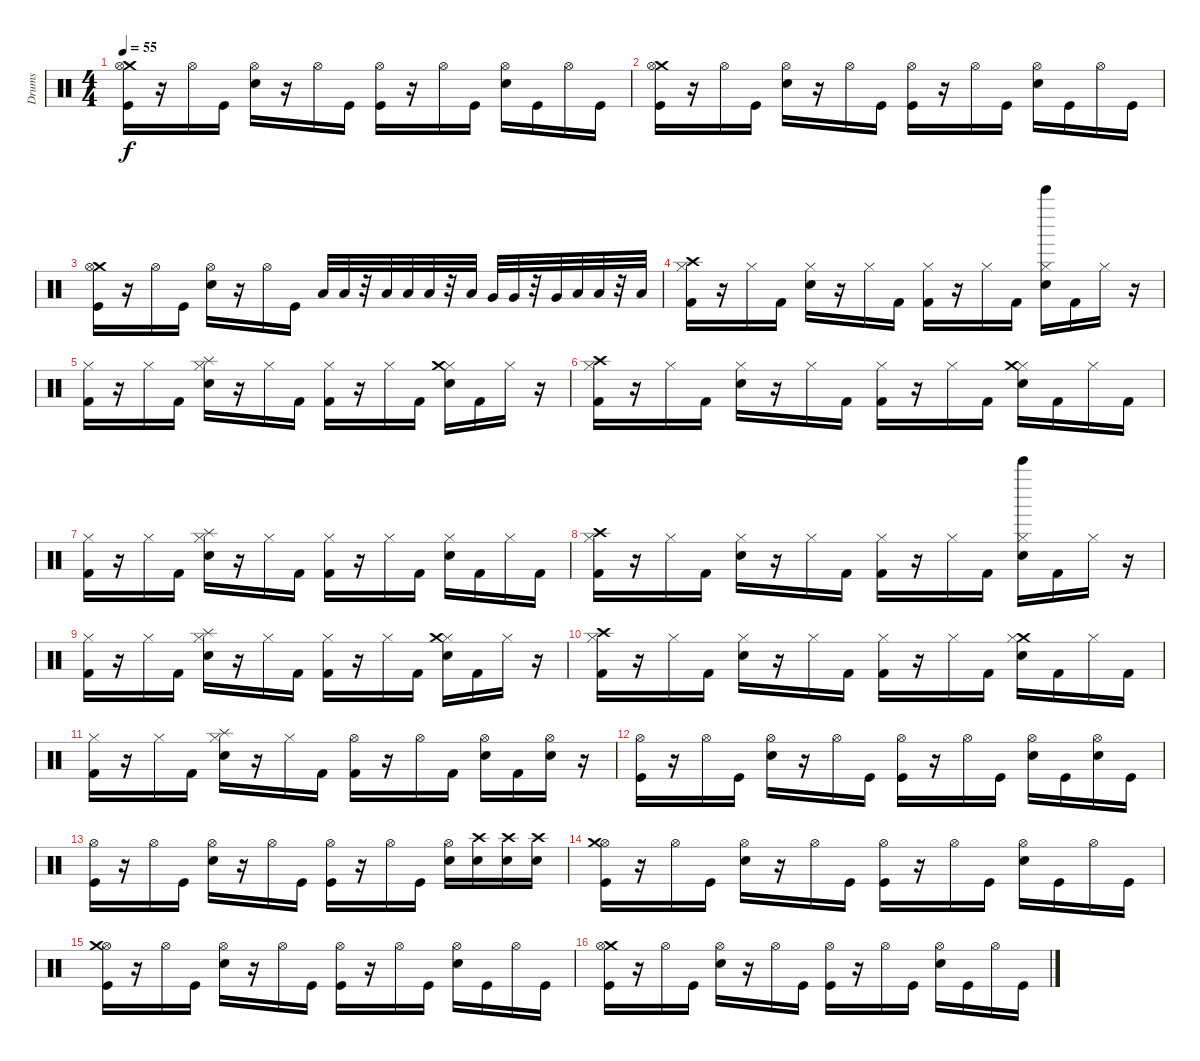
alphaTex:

\track ("Drums" "Drums") {instrument percussion}
\staff {score}
\articulation defaults
\ts (4 4)
\tempo 55
\clef neutral
\ks c
("Crash medium (hit)" "Hi-Hat (open)" "Kick (hit)").16{dy f} r.16 "Hi-Hat (open)".16 "Kick (hit)".16 ("Electric Snare (hit)" "Hi-Hat (open)").16 r.16 "Hi-Hat (open)".16 "Kick (hit)".16 ("Kick (hit)" "Hi-Hat (open)").16 r.16 "Hi-Hat (open)".16 "Kick (hit)".16 ("Hi-Hat (open)" "Electric Snare (hit)").16 "Kick (hit)".16 "Hi-Hat (open)".16 "Kick (hit)".16 |
("Crash medium (hit)" "Hi-Hat (open)" "Kick (hit)").16 r.16 "Hi-Hat (open)".16 "Kick (hit)".16 ("Hi-Hat (open)" "Electric Snare (hit)").16 r.16 "Hi-Hat (open)".16 "Kick (hit)".16 ("Hi-Hat (open)" "Kick (hit)").16 r.16 "Hi-Hat (open)".16 "Kick (hit)".16 ("Electric Snare (hit)" "Hi-Hat (open)").16 "Kick (hit)".16 "Hi-Hat (open)".16 "Kick (hit)".16 |
("Crash medium (hit)" "Kick (hit)" "Hi-Hat (open)").16 r.16 "Hi-Hat (open)".16 "Kick (hit)".16 ("Hi-Hat (open)" "Electric Snare (hit)").16 r.16 "Hi-Hat (open)".16 "Kick (hit)".16 "Low Tom (hit)".32 "Low Tom (hit)".32 r.32 "Low Tom (hit)".32 "Low Tom (hit)".32 "Low Tom (hit)".32 r.32 "Low Tom (hit)".32 "Very Low Tom (hit)".32 "Very Low Tom (hit)".32 r.32 "Very Low Tom (hit)".32 "Low Floor Tom (hit)".32 "Low Floor Tom (hit)".32 r.32 "Low Floor Tom (hit)".32 |
("Crash high (hit)" "Hi-Hat (closed)" "Kick (hit) 2").16 r.16 "Hi-Hat (closed)".16 "Kick (hit) 2".16 ("Hi-Hat (closed)" "Electric Snare (hit)").16 r.16 "Hi-Hat (closed)".16 "Kick (hit) 2".16 ("Hi-Hat (closed)" "Kick (hit) 2").16 r.16 "Hi-Hat (closed)".16 "Kick (hit) 2".16 ("Hi-Hat (closed)" "Electric Snare (hit)" "Bell Tree (hit)").16 "Kick (hit) 2".16 "Hi-Hat (closed)".16 r.16 |
("Hi-Hat (closed)" "Kick (hit) 2").16 r.16 "Hi-Hat (closed)".16 "Kick (hit) 2".16 ("Splash (hit)" "Hi-Hat (closed)" "Electric Snare (hit)").16 r.16 "Hi-Hat (closed)".16 "Kick (hit) 2".16 ("Hi-Hat (closed)" "Kick (hit) 2").16 r.16 "Hi-Hat (closed)".16 "Kick (hit) 2".16 ("Hi-Hat (closed)" "Electric Snare (hit)" "Crash medium (hit)").16 "Kick (hit) 2".16 "Hi-Hat (closed)".16 r.16 |
("Kick (hit) 2" "Crash high (hit)" "Hi-Hat (closed)").16 r.16 "Hi-Hat (closed)".16 "Kick (hit) 2".16 ("Hi-Hat (closed)" "Electric Snare (hit)").16 r.16 "Hi-Hat (closed)".16 "Kick (hit) 2".16 ("Kick (hit) 2" "Hi-Hat (closed)").16 r.16 "Hi-Hat (closed)".16 "Kick (hit) 2".16 ("Hi-Hat (closed)" "Crash medium (hit)" "Electric Snare (hit)").16 "Kick (hit) 2".16 "Hi-Hat (closed)".16 "Kick (hit) 2".16 |
("Hi-Hat (closed)" "Kick (hit) 2").16 r.16 "Hi-Hat (closed)".16 "Kick (hit) 2".16 ("Splash (hit)" "Electric Snare (hit)" "Hi-Hat (closed)").16 r.16 "Hi-Hat (closed)".16 "Kick (hit) 2".16 ("Kick (hit) 2" "Hi-Hat (closed)").16 r.16 "Hi-Hat (closed)".16 "Kick (hit) 2".16 ("Electric Snare (hit)" "Hi-Hat (closed)").16 "Kick (hit) 2".16 "Hi-Hat (closed)".16 "Kick (hit) 2".16 |
("Kick (hit) 2" "Hi-Hat (closed)" "Crash high (hit)").16 r.16 "Hi-Hat (closed)".16 "Kick (hit) 2".16 ("Hi-Hat (closed)" "Electric Snare (hit)").16 r.16 "Hi-Hat (closed)".16 "Kick (hit) 2".16 ("Hi-Hat (closed)" "Kick (hit) 2").16 r.16 "Hi-Hat (closed)".16 "Kick (hit) 2".16 ("Electric Snare (hit)" "Hi-Hat (closed)" "Bell Tree (hit)").16 "Kick (hit) 2".16 "Hi-Hat (closed)".16 r.16 |
("Hi-Hat (closed)" "Kick (hit) 2").16 r.16 "Hi-Hat (closed)".16 "Kick (hit) 2".16 ("Hi-Hat (closed)" "Splash (hit)" "Electric Snare (hit)").16 r.16 "Hi-Hat (closed)".16 "Kick (hit) 2".16 ("Hi-Hat (closed)" "Kick (hit) 2").16 r.16 "Hi-Hat (closed)".16 "Kick (hit) 2".16 ("Electric Snare (hit)" "Hi-Hat (closed)" "Crash medium (hit)").16 "Kick (hit) 2".16 "Hi-Hat (closed)".16 r.16 |
("Kick (hit) 2" "Hi-Hat (closed)" "Crash high (hit)").16 r.16 "Hi-Hat (closed)".16 "Kick (hit) 2".16 ("Hi-Hat (closed)" "Electric Snare (hit)").16 r.16 "Hi-Hat (closed)".16 "Kick (hit) 2".16 ("Kick (hit) 2" "Hi-Hat (closed)").16 r.16 "Hi-Hat (closed)".16 "Kick (hit) 2".16 ("Crash medium (hit)" "Hi-Hat (closed)" "Electric Snare (hit)").16 "Kick (hit) 2".16 "Hi-Hat (closed)".16 "Kick (hit) 2".16 |
("Kick (hit) 2" "Hi-Hat (closed)").16 r.16 "Hi-Hat (closed)".16 "Kick (hit) 2".16 ("Splash (hit)" "Electric Snare (hit)" "Hi-Hat (closed)").16 r.16 "Hi-Hat (closed)".16 "Kick (hit) 2".16 ("Kick (hit) 2" "Hi-Hat (open)").16 r.16 "Hi-Hat (open)".16 "Kick (hit) 2".16 ("Metronome (bell)" "Hi-Hat (open)").16 "Kick (hit) 2".16 ("Hi-Hat (open)" "Metronome (bell)").16 r.16 |
("Hi-Hat (open)" "Kick (hit)").16 r.16 "Hi-Hat (open)".16 "Kick (hit)".16 ("Hi-Hat (open)" "Electric Snare (hit)").16 r.16 "Hi-Hat (open)".16 "Kick (hit)".16 ("Hi-Hat (open)" "Kick (hit)").16 r.16 "Hi-Hat (open)".16 "Kick (hit)".16 ("Hi-Hat (open)" "Electric Snare (hit)").16 "Kick (hit)".16 ("Hi-Hat (open)" "Electric Snare (hit)").16 "Kick (hit)".16 |
("Hi-Hat (open)" "Kick (hit)").16 r.16 "Hi-Hat (open)".16 "Kick (hit)".16 ("Hi-Hat (open)" "Electric Snare (hit)").16 r.16 "Hi-Hat (open)".16 "Kick (hit)".16 ("Hi-Hat (open)" "Kick (hit)").16 r.16 "Hi-Hat (open)".16 "Kick (hit)".16 ("Hi-Hat (open)" "Electric Snare (hit)").16 ("Crash high (hit)" "Electric Snare (hit)").16 ("Crash high (hit)" "Electric Snare (hit)").16 ("Crash high (hit)" "Electric Snare (hit)").16 |
("Kick (hit)" "Hi-Hat (open)" "Crash medium (hit)").16 r.16 "Hi-Hat (open)".16 "Kick (hit)".16 ("Hi-Hat (open)" "Electric Snare (hit)").16 r.16 "Hi-Hat (open)".16 "Kick (hit)".16 ("Kick (hit)" "Hi-Hat (open)").16 r.16 "Hi-Hat (open)".16 "Kick (hit)".16 ("Electric Snare (hit)" "Hi-Hat (open)").16 "Kick (hit)".16 "Hi-Hat (open)".16 "Kick (hit)".16 |
("Hi-Hat (open)" "Crash medium (hit)" "Kick (hit)").16 r.16 "Hi-Hat (open)".16 "Kick (hit)".16 ("Electric Snare (hit)" "Hi-Hat (open)").16 r.16 "Hi-Hat (open)".16 "Kick (hit)".16 ("Hi-Hat (open)" "Kick (hit)").16 r.16 "Hi-Hat (open)".16 "Kick (hit)".16 ("Hi-Hat (open)" "Electric Snare (hit)").16 "Kick (hit)".16 "Hi-Hat (open)".16 "Kick (hit)".16 |
("Crash medium (hit)" "Hi-Hat (open)" "Kick (hit)").16 r.16 "Hi-Hat (open)".16 "Kick (hit)".16 ("Electric Snare (hit)" "Hi-Hat (open)").16 r.16 "Hi-Hat (open)".16 "Kick (hit)".16 ("Kick (hit)" "Hi-Hat (open)").16 r.16 "Hi-Hat (open)".16 "Kick (hit)".16 ("Electric Snare (hit)" "Hi-Hat (open)").16 "Kick (hit)".16 "Hi-Hat (open)".16 "Kick (hit)".16
